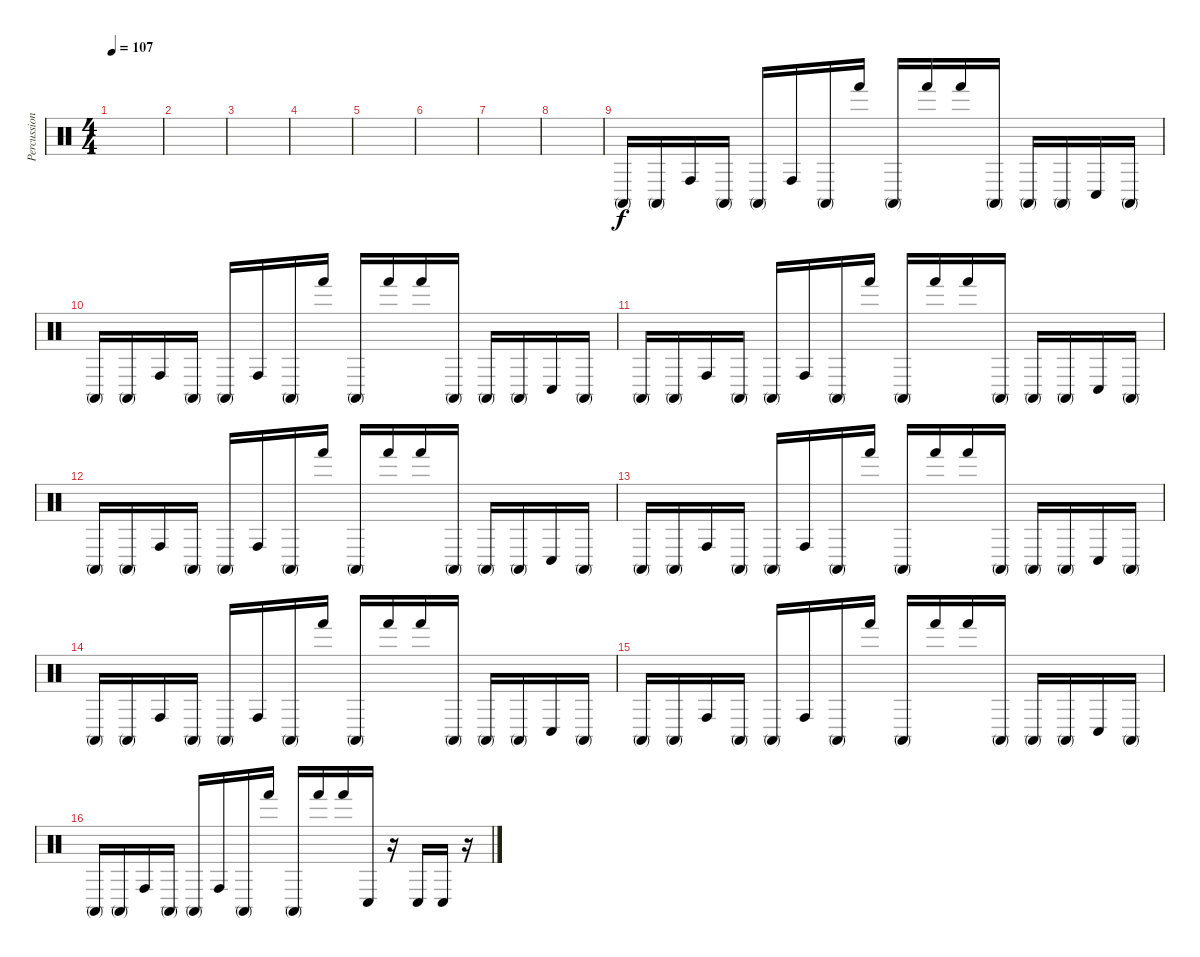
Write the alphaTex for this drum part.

\track ("Percussioni" "Percussion") {instrument percussion}
\staff {score}
\articulation defaults
\ts (4 4)
\tempo 107
\clef neutral
\ks c
|
|
|
|
|
|
|
|
"Conga high (mute)".16 "Conga high (mute)".16 "Conga high (hit)".16 "Conga high (mute)".16 "Conga high (mute)".16 "Conga high (hit)".16 "Conga high (mute)".16 "Hand (hit)".16 "Conga high (mute)".16 "Hand (hit)".16 "Hand (hit)".16 "Conga high (mute)".16 "Conga high (mute)".16 "Conga high (mute)".16 "Conga low (hit)".16 "Conga high (mute)".16 |
"Conga high (mute)".16 "Conga high (mute)".16 "Conga high (hit)".16 "Conga high (mute)".16 "Conga high (mute)".16 "Conga high (hit)".16 "Conga high (mute)".16 "Hand (hit)".16 "Conga high (mute)".16 "Hand (hit)".16 "Hand (hit)".16 "Conga high (mute)".16 "Conga high (mute)".16 "Conga high (mute)".16 "Conga low (hit)".16 "Conga high (mute)".16 |
"Conga high (mute)".16 "Conga high (mute)".16 "Conga high (hit)".16 "Conga high (mute)".16 "Conga high (mute)".16 "Conga high (hit)".16 "Conga high (mute)".16 "Hand (hit)".16 "Conga high (mute)".16 "Hand (hit)".16 "Hand (hit)".16 "Conga high (mute)".16 "Conga high (mute)".16 "Conga high (mute)".16 "Conga low (hit)".16 "Conga high (mute)".16 |
"Conga high (mute)".16 "Conga high (mute)".16 "Conga high (hit)".16 "Conga high (mute)".16 "Conga high (mute)".16 "Conga high (hit)".16 "Conga high (mute)".16 "Hand (hit)".16 "Conga high (mute)".16 "Hand (hit)".16 "Hand (hit)".16 "Conga high (mute)".16 "Conga high (mute)".16 "Conga high (mute)".16 "Conga low (hit)".16 "Conga high (mute)".16 |
"Conga high (mute)".16 "Conga high (mute)".16 "Conga high (hit)".16 "Conga high (mute)".16 "Conga high (mute)".16 "Conga high (hit)".16 "Conga high (mute)".16 "Hand (hit)".16 "Conga high (mute)".16 "Hand (hit)".16 "Hand (hit)".16 "Conga high (mute)".16 "Conga high (mute)".16 "Conga high (mute)".16 "Conga low (hit)".16 "Conga high (mute)".16 |
"Conga high (mute)".16 "Conga high (mute)".16 "Conga high (hit)".16 "Conga high (mute)".16 "Conga high (mute)".16 "Conga high (hit)".16 "Conga high (mute)".16 "Hand (hit)".16 "Conga high (mute)".16 "Hand (hit)".16 "Hand (hit)".16 "Conga high (mute)".16 "Conga high (mute)".16 "Conga high (mute)".16 "Conga low (hit)".16 "Conga high (mute)".16 |
"Conga high (mute)".16 "Conga high (mute)".16 "Conga high (hit)".16 "Conga high (mute)".16 "Conga high (mute)".16 "Conga high (hit)".16 "Conga high (mute)".16 "Hand (hit)".16 "Conga high (mute)".16 "Hand (hit)".16 "Hand (hit)".16 "Conga high (mute)".16 "Conga high (mute)".16 "Conga high (mute)".16 "Conga low (hit)".16 "Conga high (mute)".16 |
"Conga high (mute)".16 "Conga high (mute)".16 "Conga high (hit)".16 "Conga high (mute)".16 "Conga high (mute)".16 "Conga high (hit)".16 "Conga high (mute)".16 "Hand (hit)".16 "Conga high (mute)".16 "Hand (hit)".16 "Hand (hit)".16 "Conga low (hit)".16 r.16 "Conga low (hit)".16 "Conga low (hit)".16 r.16
